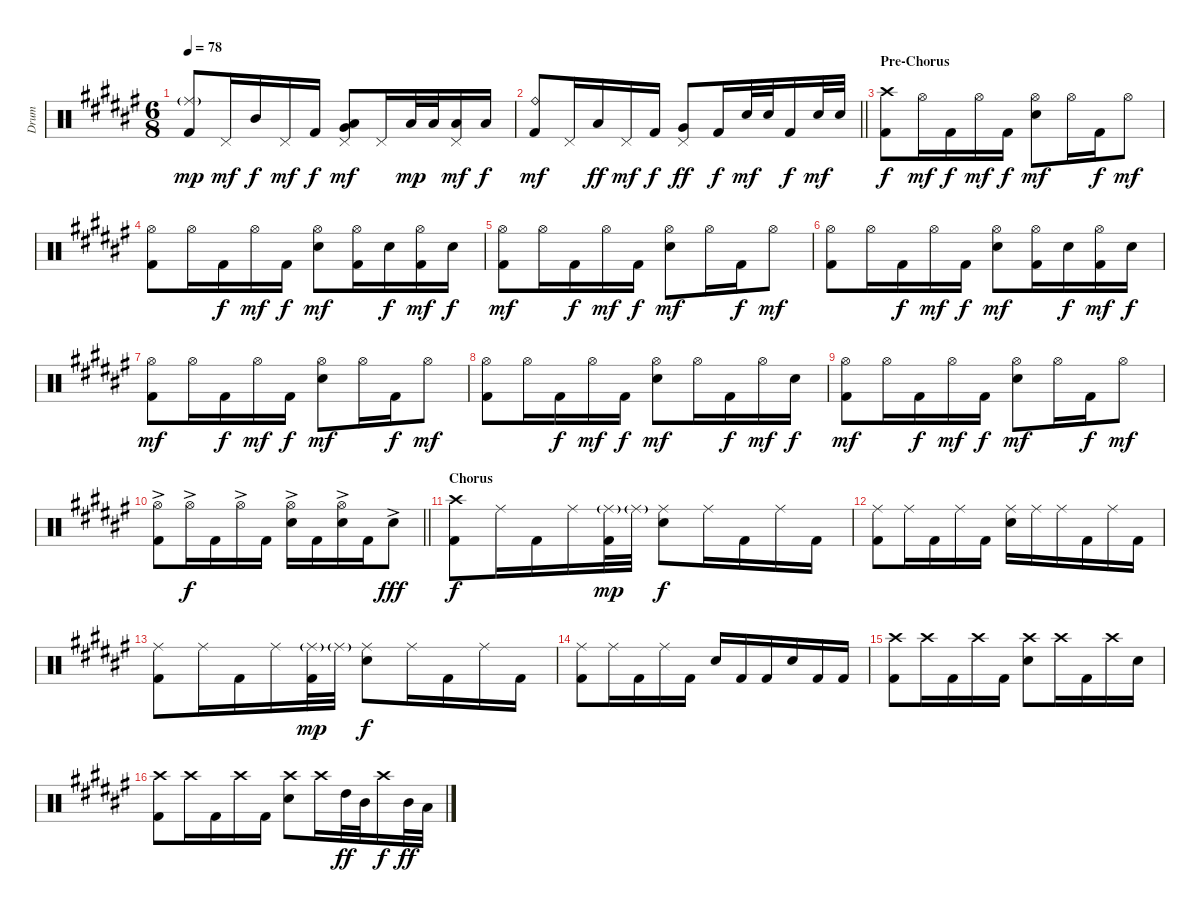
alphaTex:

\track ("Drum" "Drum") {instrument percussion}
\staff {score}
\articulation defaults
\ts (6 8)
\tempo 78
\clef neutral
\ks d#minor
("Ride (middle)"{g} "Kick (hit) 2").8{dy mp} "Pedal Hi-Hat (hit)".16{dy mf} "Mid Tom (hit)".16{dy f} "Pedal Hi-Hat (hit)".16{dy mf} "Kick (hit) 2".16{dy f} ("Pedal Hi-Hat (hit)" "Low Tom (hit)" "Very Low Tom (hit)").8{dy mf} "Pedal Hi-Hat (hit)".16 "Low Floor Tom (hit)".32{dy mp} "Low Floor Tom (hit)".32 ("Pedal Hi-Hat (hit)" "Low Floor Tom (hit)").16{dy mf} "Low Tom (hit)".16{dy f} |
\barLineRight lightlight
("Ride (bell)" "Kick (hit) 2").8{dy mf} "Pedal Hi-Hat (hit)".16 "Low Tom (hit)".16{dy ff} "Pedal Hi-Hat (hit)".16{dy mf} "Kick (hit) 2".16{dy f} ("Pedal Hi-Hat (hit)" "Very Low Tom (hit)").8{dy ff} "Kick (hit) 2".16{dy f} "Electric Snare (hit)".32{dy mf} "Electric Snare (hit)".32 "Kick (hit) 2".16{dy f} "Electric Snare (hit)".32{dy mf} "Electric Snare (hit)".32 |
\section ("" "Pre-Chorus")
("Crash high (hit)" "Kick (hit) 2").8{dy f} "Hi-Hat (open)".16{dy mf} "Kick (hit) 2".16{dy f} "Hi-Hat (open)".16{dy mf} "Kick (hit) 2".16{dy f} ("Hi-Hat (open)" "Electric Snare (hit)").8{dy mf} "Hi-Hat (open)".16 "Kick (hit) 2".16{dy f} "Hi-Hat (open)".8{dy mf} |
("Hi-Hat (open)" "Kick (hit) 2").8 "Hi-Hat (open)".16 "Kick (hit) 2".16{dy f} "Hi-Hat (open)".16{dy mf} "Kick (hit) 2".16{dy f} ("Hi-Hat (open)" "Electric Snare (hit)").8{dy mf} ("Hi-Hat (open)" "Kick (hit) 2").16 "Electric Snare (hit)".16{dy f} ("Hi-Hat (open)" "Kick (hit) 2").16{dy mf} "Electric Snare (hit)".16{dy f} |
("Hi-Hat (open)" "Kick (hit) 2").8{dy mf} "Hi-Hat (open)".16 "Kick (hit) 2".16{dy f} "Hi-Hat (open)".16{dy mf} "Kick (hit) 2".16{dy f} ("Hi-Hat (open)" "Electric Snare (hit)").8{dy mf} "Hi-Hat (open)".16 "Kick (hit) 2".16{dy f} "Hi-Hat (open)".8{dy mf} |
("Hi-Hat (open)" "Kick (hit) 2").8 "Hi-Hat (open)".16 "Kick (hit) 2".16{dy f} "Hi-Hat (open)".16{dy mf} "Kick (hit) 2".16{dy f} ("Hi-Hat (open)" "Electric Snare (hit)").8{dy mf} ("Hi-Hat (open)" "Kick (hit) 2").16 "Electric Snare (hit)".16{dy f} ("Hi-Hat (open)" "Kick (hit) 2").16{dy mf} "Electric Snare (hit)".16{dy f} |
("Hi-Hat (open)" "Kick (hit) 2").8{dy mf} "Hi-Hat (open)".16 "Kick (hit) 2".16{dy f} "Hi-Hat (open)".16{dy mf} "Kick (hit) 2".16{dy f} ("Hi-Hat (open)" "Electric Snare (hit)").8{dy mf} "Hi-Hat (open)".16 "Kick (hit) 2".16{dy f} "Hi-Hat (open)".8{dy mf} |
("Hi-Hat (open)" "Kick (hit) 2").8 "Hi-Hat (open)".16 "Kick (hit) 2".16{dy f} "Hi-Hat (open)".16{dy mf} "Kick (hit) 2".16{dy f} ("Hi-Hat (open)" "Electric Snare (hit)").8{dy mf} "Hi-Hat (open)".16 "Kick (hit) 2".16{dy f} "Hi-Hat (open)".16{dy mf} "Electric Snare (hit)".16{dy f} |
("Hi-Hat (open)" "Kick (hit) 2").8{dy mf} "Hi-Hat (open)".16 "Kick (hit) 2".16{dy f} "Hi-Hat (open)".16{dy mf} "Kick (hit) 2".16{dy f} ("Hi-Hat (open)" "Electric Snare (hit)").8{dy mf} "Hi-Hat (open)".16 "Kick (hit) 2".16{dy f} "Hi-Hat (open)".8{dy mf} |
\barLineRight lightlight
("Hi-Hat (open)"{ac} "Kick (hit) 2").8 "Hi-Hat (open)"{ac}.16{dy f} "Kick (hit) 2".16 "Hi-Hat (open)"{ac}.16 "Kick (hit) 2".16 ("Hi-Hat (open)"{ac} "Electric Snare (hit)").16 "Kick (hit) 2".16 ("Hi-Hat (open)"{ac} "Electric Snare (hit)").16 "Kick (hit) 2".16 "Electric Snare (hit)"{ac}.8{dy fff} |
\section ("" "Chorus")
("Crash high (hit)" "Kick (hit) 2").8{dy f} "Ride (middle)".16 "Kick (hit) 2".16 "Ride (middle)".16 ("Ride (middle)"{g} "Kick (hit) 2").32{dy mp} "Ride (middle)"{g}.32 ("Ride (middle)" "Electric Snare (hit)").8{dy f} "Ride (middle)".16 "Kick (hit) 2".16 "Ride (middle)".16 "Kick (hit) 2".16 |
("Ride (middle)" "Kick (hit) 2").8 "Ride (middle)".16 "Kick (hit) 2".16 "Ride (middle)".16 "Kick (hit) 2".16 ("Ride (middle)" "Electric Snare (hit)").16 "Ride (middle)".16 "Ride (middle)".16 "Kick (hit) 2".16 "Ride (middle)".16 "Kick (hit) 2".16 |
("Ride (middle)" "Kick (hit) 2").8 "Ride (middle)".16 "Kick (hit) 2".16 "Ride (middle)".16 ("Ride (middle)"{g} "Kick (hit) 2").32{dy mp} "Ride (middle)"{g}.32 ("Ride (middle)" "Electric Snare (hit)").8{dy f} "Ride (middle)".16 "Kick (hit) 2".16 "Ride (middle)".16 "Kick (hit) 2".16 |
("Ride (middle)" "Kick (hit) 2").8 "Ride (middle)".16 "Kick (hit) 2".16 "Ride (middle)".16 "Kick (hit) 2".16 "Electric Snare (hit)".16 "Kick (hit) 2".16 "Kick (hit) 2".16 "Electric Snare (hit)".16 "Kick (hit) 2".16 "Kick (hit) 2".16 |
("Crash high (hit)" "Kick (hit) 2").8 "Crash high (hit)".16 "Kick (hit) 2".16 "Crash high (hit)".16 "Kick (hit) 2".16 ("Crash high (hit)" "Electric Snare (hit)").8 "Crash high (hit)".16 "Kick (hit) 2".16 "Crash high (hit)".16 "Electric Snare (hit)".16 |
("Crash high (hit)" "Kick (hit) 2").8 "Crash high (hit)".16 "Kick (hit) 2".16 "Crash high (hit)".16 "Kick (hit) 2".16 ("Crash high (hit)" "Electric Snare (hit)").8 "Crash high (hit)".16 "High Tom (hit)".32{dy ff} "Mid Tom (hit)".32 "Crash high (hit)".16{dy f} "Mid Tom (hit)".32{dy ff} "Low Tom (hit)".32
